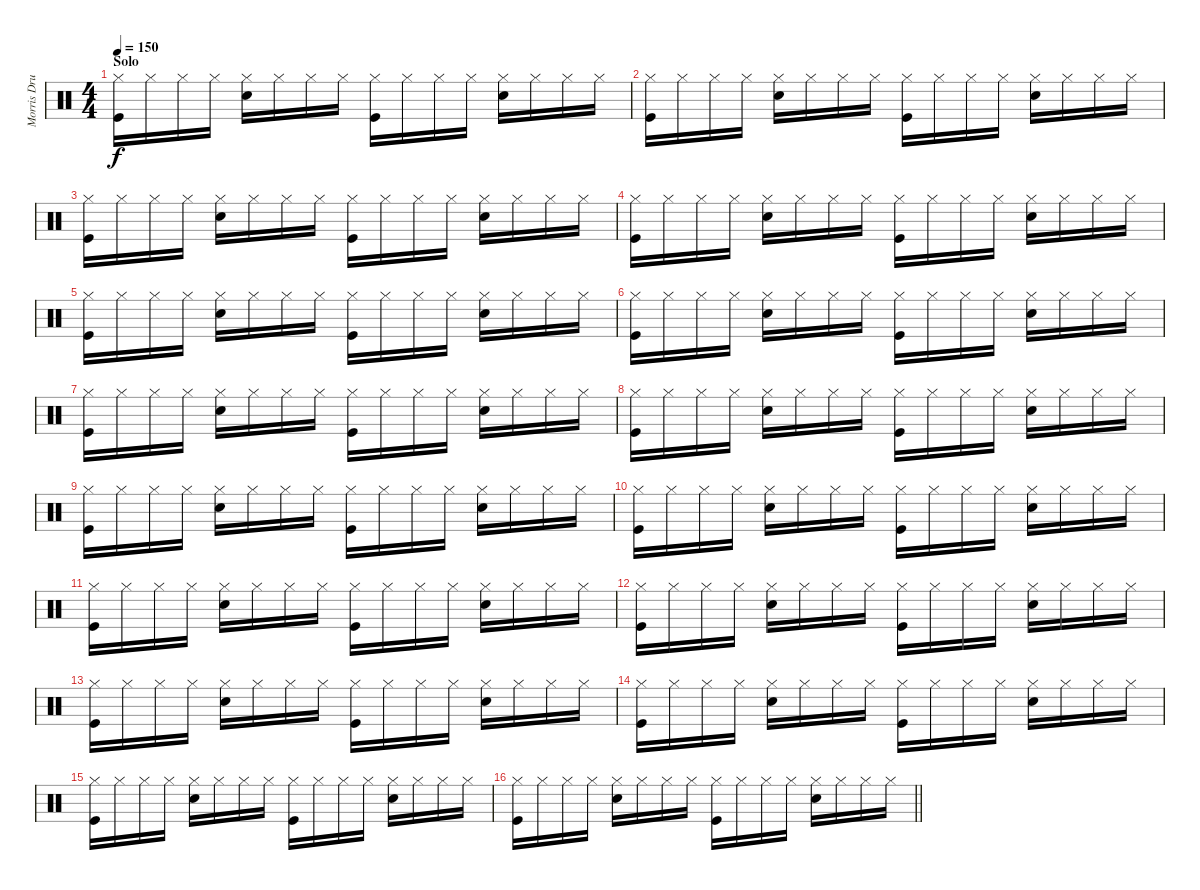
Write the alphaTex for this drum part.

\track ("Morris Drums" "Morris Dru") {instrument percussion}
\staff {score}
\articulation defaults
\ts (4 4)
\section ("" "Solo")
\tempo 150
\clef neutral
\ks c
("Hi-Hat (closed)" "Kick (hit)").16{dy f} "Hi-Hat (closed)".16 "Hi-Hat (closed)".16 "Hi-Hat (closed)".16 ("Hi-Hat (closed)" "Snare (hit) 2").16 "Hi-Hat (closed)".16 "Hi-Hat (closed)".16 "Hi-Hat (closed)".16 ("Hi-Hat (closed)" "Kick (hit)").16 "Hi-Hat (closed)".16 "Hi-Hat (closed)".16 "Hi-Hat (closed)".16 ("Hi-Hat (closed)" "Snare (hit) 2").16 "Hi-Hat (closed)".16 "Hi-Hat (closed)".16 "Hi-Hat (closed)".16 |
("Hi-Hat (closed)" "Kick (hit)").16 "Hi-Hat (closed)".16 "Hi-Hat (closed)".16 "Hi-Hat (closed)".16 ("Hi-Hat (closed)" "Snare (hit) 2").16 "Hi-Hat (closed)".16 "Hi-Hat (closed)".16 "Hi-Hat (closed)".16 ("Hi-Hat (closed)" "Kick (hit)").16 "Hi-Hat (closed)".16 "Hi-Hat (closed)".16 "Hi-Hat (closed)".16 ("Hi-Hat (closed)" "Snare (hit) 2").16 "Hi-Hat (closed)".16 "Hi-Hat (closed)".16 "Hi-Hat (closed)".16 |
("Hi-Hat (closed)" "Kick (hit)").16 "Hi-Hat (closed)".16 "Hi-Hat (closed)".16 "Hi-Hat (closed)".16 ("Hi-Hat (closed)" "Snare (hit) 2").16 "Hi-Hat (closed)".16 "Hi-Hat (closed)".16 "Hi-Hat (closed)".16 ("Hi-Hat (closed)" "Kick (hit)").16 "Hi-Hat (closed)".16 "Hi-Hat (closed)".16 "Hi-Hat (closed)".16 ("Hi-Hat (closed)" "Snare (hit) 2").16 "Hi-Hat (closed)".16 "Hi-Hat (closed)".16 "Hi-Hat (closed)".16 |
("Hi-Hat (closed)" "Kick (hit)").16 "Hi-Hat (closed)".16 "Hi-Hat (closed)".16 "Hi-Hat (closed)".16 ("Hi-Hat (closed)" "Snare (hit) 2").16 "Hi-Hat (closed)".16 "Hi-Hat (closed)".16 "Hi-Hat (closed)".16 ("Hi-Hat (closed)" "Kick (hit)").16 "Hi-Hat (closed)".16 "Hi-Hat (closed)".16 "Hi-Hat (closed)".16 ("Hi-Hat (closed)" "Snare (hit) 2").16 "Hi-Hat (closed)".16 "Hi-Hat (closed)".16 "Hi-Hat (closed)".16 |
("Hi-Hat (closed)" "Kick (hit)").16 "Hi-Hat (closed)".16 "Hi-Hat (closed)".16 "Hi-Hat (closed)".16 ("Hi-Hat (closed)" "Snare (hit) 2").16 "Hi-Hat (closed)".16 "Hi-Hat (closed)".16 "Hi-Hat (closed)".16 ("Hi-Hat (closed)" "Kick (hit)").16 "Hi-Hat (closed)".16 "Hi-Hat (closed)".16 "Hi-Hat (closed)".16 ("Hi-Hat (closed)" "Snare (hit) 2").16 "Hi-Hat (closed)".16 "Hi-Hat (closed)".16 "Hi-Hat (closed)".16 |
("Hi-Hat (closed)" "Kick (hit)").16 "Hi-Hat (closed)".16 "Hi-Hat (closed)".16 "Hi-Hat (closed)".16 ("Hi-Hat (closed)" "Snare (hit) 2").16 "Hi-Hat (closed)".16 "Hi-Hat (closed)".16 "Hi-Hat (closed)".16 ("Hi-Hat (closed)" "Kick (hit)").16 "Hi-Hat (closed)".16 "Hi-Hat (closed)".16 "Hi-Hat (closed)".16 ("Hi-Hat (closed)" "Snare (hit) 2").16 "Hi-Hat (closed)".16 "Hi-Hat (closed)".16 "Hi-Hat (closed)".16 |
("Hi-Hat (closed)" "Kick (hit)").16 "Hi-Hat (closed)".16 "Hi-Hat (closed)".16 "Hi-Hat (closed)".16 ("Hi-Hat (closed)" "Snare (hit) 2").16 "Hi-Hat (closed)".16 "Hi-Hat (closed)".16 "Hi-Hat (closed)".16 ("Hi-Hat (closed)" "Kick (hit)").16 "Hi-Hat (closed)".16 "Hi-Hat (closed)".16 "Hi-Hat (closed)".16 ("Hi-Hat (closed)" "Snare (hit) 2").16 "Hi-Hat (closed)".16 "Hi-Hat (closed)".16 "Hi-Hat (closed)".16 |
("Hi-Hat (closed)" "Kick (hit)").16 "Hi-Hat (closed)".16 "Hi-Hat (closed)".16 "Hi-Hat (closed)".16 ("Hi-Hat (closed)" "Snare (hit) 2").16 "Hi-Hat (closed)".16 "Hi-Hat (closed)".16 "Hi-Hat (closed)".16 ("Hi-Hat (closed)" "Kick (hit)").16 "Hi-Hat (closed)".16 "Hi-Hat (closed)".16 "Hi-Hat (closed)".16 ("Hi-Hat (closed)" "Snare (hit) 2").16 "Hi-Hat (closed)".16 "Hi-Hat (closed)".16 "Hi-Hat (closed)".16 |
("Hi-Hat (closed)" "Kick (hit)").16 "Hi-Hat (closed)".16 "Hi-Hat (closed)".16 "Hi-Hat (closed)".16 ("Hi-Hat (closed)" "Snare (hit) 2").16 "Hi-Hat (closed)".16 "Hi-Hat (closed)".16 "Hi-Hat (closed)".16 ("Hi-Hat (closed)" "Kick (hit)").16 "Hi-Hat (closed)".16 "Hi-Hat (closed)".16 "Hi-Hat (closed)".16 ("Hi-Hat (closed)" "Snare (hit) 2").16 "Hi-Hat (closed)".16 "Hi-Hat (closed)".16 "Hi-Hat (closed)".16 |
("Hi-Hat (closed)" "Kick (hit)").16 "Hi-Hat (closed)".16 "Hi-Hat (closed)".16 "Hi-Hat (closed)".16 ("Hi-Hat (closed)" "Snare (hit) 2").16 "Hi-Hat (closed)".16 "Hi-Hat (closed)".16 "Hi-Hat (closed)".16 ("Hi-Hat (closed)" "Kick (hit)").16 "Hi-Hat (closed)".16 "Hi-Hat (closed)".16 "Hi-Hat (closed)".16 ("Hi-Hat (closed)" "Snare (hit) 2").16 "Hi-Hat (closed)".16 "Hi-Hat (closed)".16 "Hi-Hat (closed)".16 |
("Hi-Hat (closed)" "Kick (hit)").16 "Hi-Hat (closed)".16 "Hi-Hat (closed)".16 "Hi-Hat (closed)".16 ("Hi-Hat (closed)" "Snare (hit) 2").16 "Hi-Hat (closed)".16 "Hi-Hat (closed)".16 "Hi-Hat (closed)".16 ("Hi-Hat (closed)" "Kick (hit)").16 "Hi-Hat (closed)".16 "Hi-Hat (closed)".16 "Hi-Hat (closed)".16 ("Hi-Hat (closed)" "Snare (hit) 2").16 "Hi-Hat (closed)".16 "Hi-Hat (closed)".16 "Hi-Hat (closed)".16 |
("Hi-Hat (closed)" "Kick (hit)").16 "Hi-Hat (closed)".16 "Hi-Hat (closed)".16 "Hi-Hat (closed)".16 ("Hi-Hat (closed)" "Snare (hit) 2").16 "Hi-Hat (closed)".16 "Hi-Hat (closed)".16 "Hi-Hat (closed)".16 ("Hi-Hat (closed)" "Kick (hit)").16 "Hi-Hat (closed)".16 "Hi-Hat (closed)".16 "Hi-Hat (closed)".16 ("Hi-Hat (closed)" "Snare (hit) 2").16 "Hi-Hat (closed)".16 "Hi-Hat (closed)".16 "Hi-Hat (closed)".16 |
("Hi-Hat (closed)" "Kick (hit)").16 "Hi-Hat (closed)".16 "Hi-Hat (closed)".16 "Hi-Hat (closed)".16 ("Hi-Hat (closed)" "Snare (hit) 2").16 "Hi-Hat (closed)".16 "Hi-Hat (closed)".16 "Hi-Hat (closed)".16 ("Hi-Hat (closed)" "Kick (hit)").16 "Hi-Hat (closed)".16 "Hi-Hat (closed)".16 "Hi-Hat (closed)".16 ("Hi-Hat (closed)" "Snare (hit) 2").16 "Hi-Hat (closed)".16 "Hi-Hat (closed)".16 "Hi-Hat (closed)".16 |
("Hi-Hat (closed)" "Kick (hit)").16 "Hi-Hat (closed)".16 "Hi-Hat (closed)".16 "Hi-Hat (closed)".16 ("Hi-Hat (closed)" "Snare (hit) 2").16 "Hi-Hat (closed)".16 "Hi-Hat (closed)".16 "Hi-Hat (closed)".16 ("Hi-Hat (closed)" "Kick (hit)").16 "Hi-Hat (closed)".16 "Hi-Hat (closed)".16 "Hi-Hat (closed)".16 ("Hi-Hat (closed)" "Snare (hit) 2").16 "Hi-Hat (closed)".16 "Hi-Hat (closed)".16 "Hi-Hat (closed)".16 |
("Hi-Hat (closed)" "Kick (hit)").16 "Hi-Hat (closed)".16 "Hi-Hat (closed)".16 "Hi-Hat (closed)".16 ("Hi-Hat (closed)" "Snare (hit) 2").16 "Hi-Hat (closed)".16 "Hi-Hat (closed)".16 "Hi-Hat (closed)".16 ("Hi-Hat (closed)" "Kick (hit)").16 "Hi-Hat (closed)".16 "Hi-Hat (closed)".16 "Hi-Hat (closed)".16 ("Hi-Hat (closed)" "Snare (hit) 2").16 "Hi-Hat (closed)".16 "Hi-Hat (closed)".16 "Hi-Hat (closed)".16 |
\barLineRight lightlight
("Hi-Hat (closed)" "Kick (hit)").16 "Hi-Hat (closed)".16 "Hi-Hat (closed)".16 "Hi-Hat (closed)".16 ("Hi-Hat (closed)" "Snare (hit) 2").16 "Hi-Hat (closed)".16 "Hi-Hat (closed)".16 "Hi-Hat (closed)".16 ("Hi-Hat (closed)" "Kick (hit)").16 "Hi-Hat (closed)".16 "Hi-Hat (closed)".16 "Hi-Hat (closed)".16 ("Hi-Hat (closed)" "Snare (hit) 2").16 "Hi-Hat (closed)".16 "Hi-Hat (closed)".16 "Hi-Hat (closed)".16
